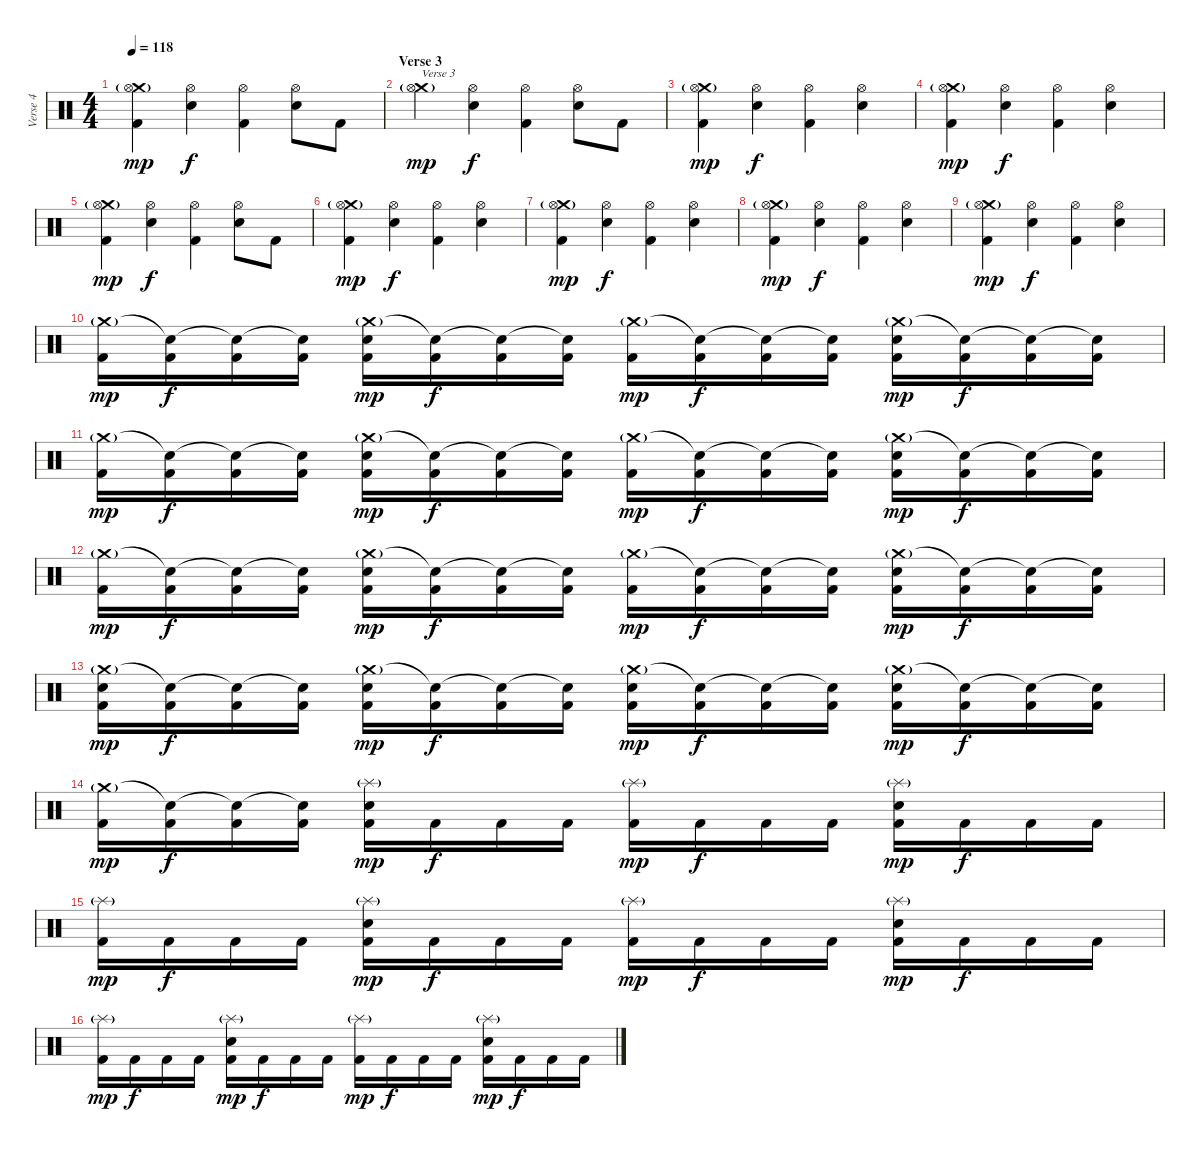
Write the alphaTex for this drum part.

\track ("Verse 4" "Verse 4") {instrument percussion}
\staff {score}
\articulation defaults
\ts (4 4)
\tempo 118
\clef neutral
\ks c
("Crash medium (hit)"{g} "Hi-Hat (open)" "Kick (hit) 2").4{dy mp} ("Hi-Hat (open)" "Electric Snare (hit)").4{dy f} ("Hi-Hat (open)" "Kick (hit) 2").4 ("Hi-Hat (open)" "Electric Snare (hit)").8 "Kick (hit) 2".8 |
\section ("" "Verse 3")
("Crash medium (hit)"{g} "Hi-Hat (open)").4{txt "Verse 3" dy mp} ("Hi-Hat (open)" "Electric Snare (hit)").4{dy f} ("Hi-Hat (open)" "Kick (hit) 2").4 ("Hi-Hat (open)" "Electric Snare (hit)").8 "Kick (hit) 2".8 |
("Crash medium (hit)"{g} "Hi-Hat (open)" "Kick (hit) 2").4{dy mp} ("Hi-Hat (open)" "Electric Snare (hit)").4{dy f} ("Hi-Hat (open)" "Kick (hit) 2").4 ("Hi-Hat (open)" "Electric Snare (hit)").4 |
("Crash medium (hit)"{g} "Hi-Hat (open)" "Kick (hit) 2").4{dy mp} ("Hi-Hat (open)" "Electric Snare (hit)").4{dy f} ("Hi-Hat (open)" "Kick (hit) 2").4 ("Hi-Hat (open)" "Electric Snare (hit)").4 |
("Crash medium (hit)"{g} "Hi-Hat (open)" "Kick (hit) 2").4{dy mp} ("Hi-Hat (open)" "Electric Snare (hit)").4{dy f} ("Hi-Hat (open)" "Kick (hit) 2").4 ("Hi-Hat (open)" "Electric Snare (hit)").8 "Kick (hit) 2".8 |
("Crash medium (hit)"{g} "Hi-Hat (open)" "Kick (hit) 2").4{dy mp} ("Hi-Hat (open)" "Electric Snare (hit)").4{dy f} ("Hi-Hat (open)" "Kick (hit) 2").4 ("Hi-Hat (open)" "Electric Snare (hit)").4 |
("Crash medium (hit)"{g} "Hi-Hat (open)" "Kick (hit) 2").4{dy mp} ("Hi-Hat (open)" "Electric Snare (hit)").4{dy f} ("Hi-Hat (open)" "Kick (hit) 2").4 ("Hi-Hat (open)" "Electric Snare (hit)").4 |
("Crash medium (hit)"{g} "Hi-Hat (open)" "Kick (hit) 2").4{dy mp} ("Hi-Hat (open)" "Electric Snare (hit)").4{dy f} ("Hi-Hat (open)" "Kick (hit) 2").4 ("Hi-Hat (open)" "Electric Snare (hit)").4 |
("Crash medium (hit)"{g} "Hi-Hat (open)" "Kick (hit) 2").4{dy mp} ("Hi-Hat (open)" "Electric Snare (hit)").4{dy f} ("Hi-Hat (open)" "Kick (hit) 2").4 ("Hi-Hat (open)" "Electric Snare (hit)").4 |
("Crash medium (hit)"{g} "Kick (hit) 2").16{dy mp} ("Snare (hit)"{t} "Kick (hit) 2").16{dy f} ("Snare (hit)"{t} "Kick (hit) 2").16 ("Snare (hit)"{t} "Kick (hit) 2").16 ("Crash medium (hit)"{g} "Electric Snare (hit)" "Kick (hit) 2").16{dy mp} ("Snare (hit)"{t} "Kick (hit) 2").16{dy f} ("Snare (hit)"{t} "Kick (hit) 2").16 ("Snare (hit)"{t} "Kick (hit) 2").16 ("Crash medium (hit)"{g} "Kick (hit) 2").16{dy mp} ("Snare (hit)"{t} "Kick (hit) 2").16{dy f} ("Snare (hit)"{t} "Kick (hit) 2").16 ("Snare (hit)"{t} "Kick (hit) 2").16 ("Crash medium (hit)"{g} "Electric Snare (hit)" "Kick (hit) 2").16{dy mp} ("Snare (hit)"{t} "Kick (hit) 2").16{dy f} ("Snare (hit)"{t} "Kick (hit) 2").16 ("Snare (hit)"{t} "Kick (hit) 2").16 |
("Crash medium (hit)"{g} "Kick (hit) 2").16{dy mp} ("Snare (hit)"{t} "Kick (hit) 2").16{dy f} ("Snare (hit)"{t} "Kick (hit) 2").16 ("Snare (hit)"{t} "Kick (hit) 2").16 ("Crash medium (hit)"{g} "Electric Snare (hit)" "Kick (hit) 2").16{dy mp} ("Snare (hit)"{t} "Kick (hit) 2").16{dy f} ("Snare (hit)"{t} "Kick (hit) 2").16 ("Snare (hit)"{t} "Kick (hit) 2").16 ("Crash medium (hit)"{g} "Kick (hit) 2").16{dy mp} ("Snare (hit)"{t} "Kick (hit) 2").16{dy f} ("Snare (hit)"{t} "Kick (hit) 2").16 ("Snare (hit)"{t} "Kick (hit) 2").16 ("Crash medium (hit)"{g} "Electric Snare (hit)" "Kick (hit) 2").16{dy mp} ("Snare (hit)"{t} "Kick (hit) 2").16{dy f} ("Snare (hit)"{t} "Kick (hit) 2").16 ("Snare (hit)"{t} "Kick (hit) 2").16 |
("Crash medium (hit)"{g} "Kick (hit) 2").16{dy mp} ("Snare (hit)"{t} "Kick (hit) 2").16{dy f} ("Snare (hit)"{t} "Kick (hit) 2").16 ("Snare (hit)"{t} "Kick (hit) 2").16 ("Crash medium (hit)"{g} "Electric Snare (hit)" "Kick (hit) 2").16{dy mp} ("Snare (hit)"{t} "Kick (hit) 2").16{dy f} ("Snare (hit)"{t} "Kick (hit) 2").16 ("Snare (hit)"{t} "Kick (hit) 2").16 ("Crash medium (hit)"{g} "Kick (hit) 2").16{dy mp} ("Snare (hit)"{t} "Kick (hit) 2").16{dy f} ("Snare (hit)"{t} "Kick (hit) 2").16 ("Snare (hit)"{t} "Kick (hit) 2").16 ("Crash medium (hit)"{g} "Electric Snare (hit)" "Kick (hit) 2").16{dy mp} ("Snare (hit)"{t} "Kick (hit) 2").16{dy f} ("Snare (hit)"{t} "Kick (hit) 2").16 ("Snare (hit)"{t} "Kick (hit) 2").16 |
("Crash medium (hit)"{g} "Electric Snare (hit)" "Kick (hit) 2").16{dy mp} ("Snare (hit)"{t} "Kick (hit) 2").16{dy f} ("Snare (hit)"{t} "Kick (hit) 2").16 ("Snare (hit)"{t} "Kick (hit) 2").16 ("Crash medium (hit)"{g} "Electric Snare (hit)" "Kick (hit) 2").16{dy mp} ("Snare (hit)"{t} "Kick (hit) 2").16{dy f} ("Snare (hit)"{t} "Kick (hit) 2").16 ("Snare (hit)"{t} "Kick (hit) 2").16 ("Crash medium (hit)"{g} "Electric Snare (hit)" "Kick (hit) 2").16{dy mp} ("Snare (hit)"{t} "Kick (hit) 2").16{dy f} ("Snare (hit)"{t} "Kick (hit) 2").16 ("Snare (hit)"{t} "Kick (hit) 2").16 ("Crash medium (hit)"{g} "Electric Snare (hit)" "Kick (hit) 2").16{dy mp} ("Snare (hit)"{t} "Kick (hit) 2").16{dy f} ("Snare (hit)"{t} "Kick (hit) 2").16 ("Snare (hit)"{t} "Kick (hit) 2").16 |
("Crash medium (hit)"{g} "Kick (hit) 2").16{dy mp} ("Snare (hit)"{t} "Kick (hit) 2").16{dy f} ("Snare (hit)"{t} "Kick (hit) 2").16 ("Snare (hit)"{t} "Kick (hit) 2").16 ("Splash (hit)"{g} "Electric Snare (hit)" "Kick (hit) 2").16{dy mp} "Kick (hit) 2".16{dy f} "Kick (hit) 2".16 "Kick (hit) 2".16 ("Splash (hit)"{g} "Kick (hit) 2").16{dy mp} "Kick (hit) 2".16{dy f} "Kick (hit) 2".16 "Kick (hit) 2".16 ("Splash (hit)"{g} "Electric Snare (hit)" "Kick (hit) 2").16{dy mp} "Kick (hit) 2".16{dy f} "Kick (hit) 2".16 "Kick (hit) 2".16 |
("Splash (hit)"{g} "Kick (hit) 2").16{dy mp} "Kick (hit) 2".16{dy f} "Kick (hit) 2".16 "Kick (hit) 2".16 ("Splash (hit)"{g} "Electric Snare (hit)" "Kick (hit) 2").16{dy mp} "Kick (hit) 2".16{dy f} "Kick (hit) 2".16 "Kick (hit) 2".16 ("Splash (hit)"{g} "Kick (hit) 2").16{dy mp} "Kick (hit) 2".16{dy f} "Kick (hit) 2".16 "Kick (hit) 2".16 ("Splash (hit)"{g} "Electric Snare (hit)" "Kick (hit) 2").16{dy mp} "Kick (hit) 2".16{dy f} "Kick (hit) 2".16 "Kick (hit) 2".16 |
("Splash (hit)"{g} "Kick (hit) 2").16{dy mp} "Kick (hit) 2".16{dy f} "Kick (hit) 2".16 "Kick (hit) 2".16 ("Splash (hit)"{g} "Electric Snare (hit)" "Kick (hit) 2").16{dy mp} "Kick (hit) 2".16{dy f} "Kick (hit) 2".16 "Kick (hit) 2".16 ("Splash (hit)"{g} "Kick (hit) 2").16{dy mp} "Kick (hit) 2".16{dy f} "Kick (hit) 2".16 "Kick (hit) 2".16 ("Splash (hit)"{g} "Electric Snare (hit)" "Kick (hit) 2").16{dy mp} "Kick (hit) 2".16{dy f} "Kick (hit) 2".16 "Kick (hit) 2".16
